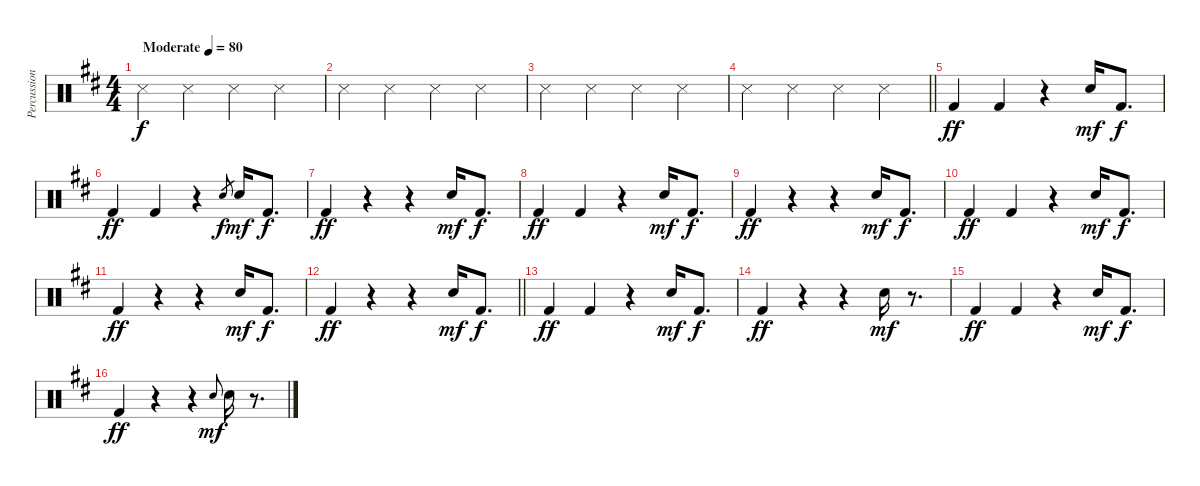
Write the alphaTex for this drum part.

\track ("Percussion" "Percussion") {instrument percussion}
\staff {score}
\articulation defaults
\ts (4 4)
\tempo (80 "Moderate")
\clef neutral
\ks bminor "Snare (side stick) 3".4{dy f} "Snare (side stick) 3".4 "Snare (side stick) 3".4 "Snare (side stick) 3".4
|
"Snare (side stick) 3".4 "Snare (side stick) 3".4 "Snare (side stick) 3".4 "Snare (side stick) 3".4 |
"Snare (side stick) 3".4 "Snare (side stick) 3".4 "Snare (side stick) 3".4 "Snare (side stick) 3".4 |
\barLineRight lightlight "Snare (side stick) 3".4 "Snare (side stick) 3".4 "Snare (side stick) 3".4 "Snare (side stick) 3".4
|
"Kick (hit) 2".4{dy ff} "Kick (hit) 2".4 r.4 "Electric Snare (hit)".16{dy mf} "Kick (hit) 2".8{d dy f} |
"Kick (hit) 2".4{dy ff} "Kick (hit) 2".4 r.4 "Electric Snare (hit)".8{gr dy f} "Electric Snare (hit)".16{dy mf} "Kick (hit) 2".8{d dy f} |
"Kick (hit) 2".4{dy ff} r.4 r.4 "Electric Snare (hit)".16{dy mf} "Kick (hit) 2".8{d dy f} |
"Kick (hit) 2".4{dy ff} "Kick (hit) 2".4 r.4 "Electric Snare (hit)".16{dy mf} "Kick (hit) 2".8{d dy f} |
"Kick (hit) 2".4{dy ff} r.4 r.4 "Electric Snare (hit)".16{dy mf} "Kick (hit) 2".8{d dy f} |
"Kick (hit) 2".4{dy ff} "Kick (hit) 2".4 r.4 "Electric Snare (hit)".16{dy mf} "Kick (hit) 2".8{d dy f} |
"Kick (hit) 2".4{dy ff} r.4 r.4 "Electric Snare (hit)".16{dy mf} "Kick (hit) 2".8{d dy f} |
\barLineRight lightlight "Kick (hit) 2".4{dy ff}
r.4 r.4 "Electric Snare (hit)".16{dy mf} "Kick (hit) 2".8{d dy f} |
"Kick (hit) 2".4{dy ff} "Kick (hit) 2".4 r.4 "Electric Snare (hit)".16{dy mf} "Kick (hit) 2".8{d dy f} |
"Kick (hit) 2".4{dy ff} r.4 r.4 "Electric Snare (hit)".16{dy mf} r.8{d} |
"Kick (hit) 2".4{dy ff} "Kick (hit) 2".4 r.4 "Electric Snare (hit)".16{dy mf} "Kick (hit) 2".8{d dy f} |
"Kick (hit) 2".4{dy ff} r.4 r.4 "Electric Snare (hit)".8{gr onbeat dy mf} "Electric Snare (hit)".16 r.8{d}
